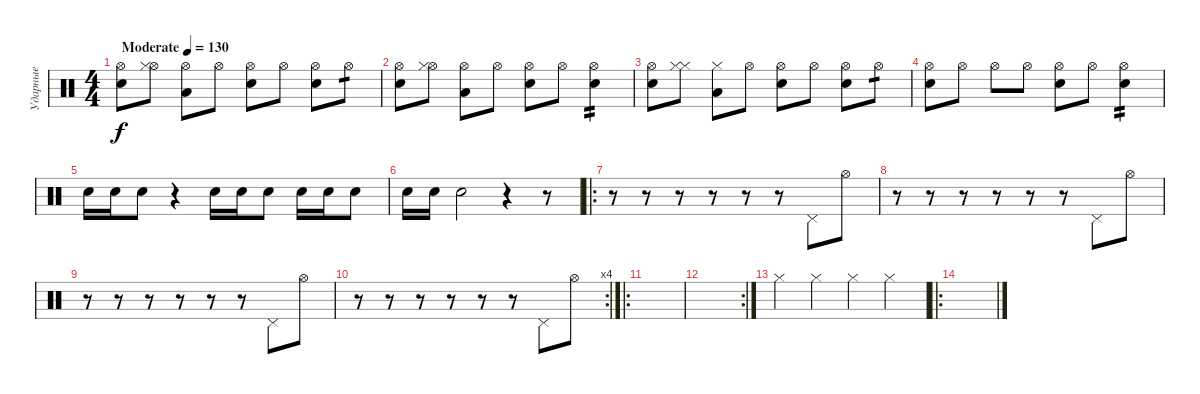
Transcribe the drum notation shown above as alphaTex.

\track ("Ударные" "Ударные") {instrument percussion}
\staff {score}
\articulation defaults
\ts (4 4)
\tempo (130 "Moderate")
\clef neutral
\ks c
("Hi-Hat (open)" "Electric Snare (hit)").8{dy f} ("Hi-Hat (open)" "Hi-Hat (closed)").8 ("Hi-Hat (open)" "Low Floor Tom (hit)").8 "Hi-Hat (open)".8 ("Hi-Hat (open)" "Electric Snare (hit)").8 "Hi-Hat (open)".8 ("Hi-Hat (open)" "Electric Snare (hit)").8 "Hi-Hat (open)".8{tp 1} |
("Hi-Hat (open)" "Electric Snare (hit)").8 ("Hi-Hat (open)" "Hi-Hat (closed)").8 ("Hi-Hat (open)" "Low Floor Tom (hit)").8 "Hi-Hat (open)".8 ("Hi-Hat (open)" "Electric Snare (hit)").8 "Hi-Hat (open)".8 ("Hi-Hat (open)" "Electric Snare (hit)").4{tp 2} |
("Hi-Hat (open)" "Electric Snare (hit)").8 ("Hi-Hat (closed)" "Hi-Hat (closed)").8 ("Hi-Hat (closed)" "Low Floor Tom (hit)").8 "Hi-Hat (open)".8 ("Hi-Hat (open)" "Electric Snare (hit)").8 "Hi-Hat (open)".8 ("Hi-Hat (open)" "Electric Snare (hit)").8 "Hi-Hat (open)".8{tp 1} |
("Hi-Hat (open)" "Electric Snare (hit)").8 "Hi-Hat (open)".8 "Hi-Hat (open)".8 "Hi-Hat (open)".8 ("Hi-Hat (open)" "Electric Snare (hit)").8 "Hi-Hat (open)".8 ("Hi-Hat (open)" "Electric Snare (hit)").4{tp 2} |
"Electric Snare (hit)".16 "Electric Snare (hit)".16 "Electric Snare (hit)".8 r.4 "Electric Snare (hit)".16 "Electric Snare (hit)".16 "Electric Snare (hit)".8 "Electric Snare (hit)".16 "Electric Snare (hit)".16 "Electric Snare (hit)".8 |
"Electric Snare (hit)".16 "Electric Snare (hit)".16 "Electric Snare (hit)".2 r.4 r.8 |
\ro
r.8 r.8 r.8 r.8 r.8 r.8 "Pedal Hi-Hat (hit)".8 "Hi-Hat (open)".8 |
r.8 r.8 r.8 r.8 r.8 r.8 "Pedal Hi-Hat (hit)".8 "Hi-Hat (open)".8 |
r.8 r.8 r.8 r.8 r.8 r.8 "Pedal Hi-Hat (hit)".8 "Hi-Hat (open)".8 |
\rc 4
r.8 r.8 r.8 r.8 r.8 r.8 "Pedal Hi-Hat (hit)".8 "Hi-Hat (open)".8 |
\ro
|
\rc 2
|
"Hi-Hat (closed)".4 "Hi-Hat (closed)".4 "Hi-Hat (closed)".4 "Hi-Hat (closed)".4 |
\ro
